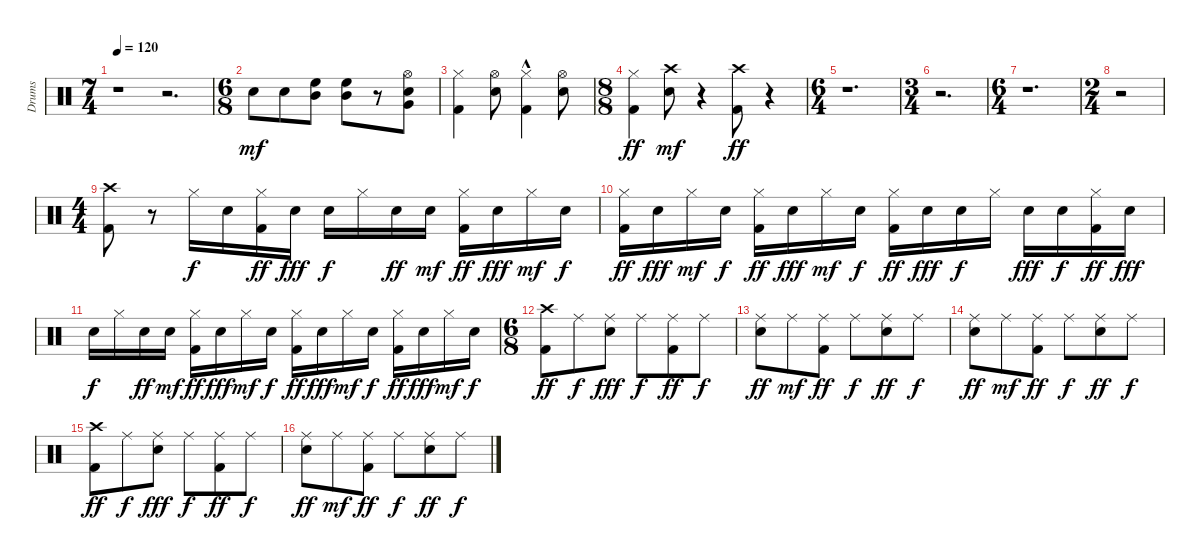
\track ("Drums" "Drums") {instrument percussion}
\staff {score}
\articulation defaults
\ts (7 4)
\tempo 120
\clef neutral
\ks c
r.1{dy mf} r.2{d} |
\ts (6 8)
"Snare (hit) 2".8 "Snare (hit) 2".8 ("Mid Tom (hit)" "High Floor Tom (hit)").8 ("Mid Tom (hit)" "High Floor Tom (hit)").8 r.8 ("Hi-Hat (open)" "Very Low Tom (hit)" "Snare (hit) 2").8 |
("Kick (hit) 2" "Hi-Hat (closed)").4 ("Snare (hit) 2" "Hi-Hat (open)").8 ("Kick (hit) 2"{hac} "Hi-Hat (closed)").4 ("Snare (hit) 2" "Hi-Hat (open)").8 |
\ts (8 8)
("Kick (hit) 2" "Hi-Hat (closed)").4{dy ff} ("Snare (hit) 2" "Crash high (hit)").8{dy mf} r.4 ("Kick (hit) 2" "Crash high (hit)").8{dy ff} r.4 |
\ts (6 4)
r.1{d} |
\ts (3 4)
r.2{d} |
\ts (6 4)
r.1{d} |
\ts (2 4)
r.2 |
\ts (4 4)
("Kick (hit) 2" "Crash high (hit)").8 r.8 "Hi-Hat (closed)".16{dy f} "Electric Snare (hit)".16 ("Kick (hit) 2" "Hi-Hat (closed)").16{dy ff} "Electric Snare (hit)".16{dy fff} "Electric Snare (hit)".16{dy f} "Hi-Hat (closed)".16 "Electric Snare (hit)".16{dy ff} "Electric Snare (hit)".16{dy mf} ("Kick (hit) 2" "Hi-Hat (closed)").16{dy ff} "Electric Snare (hit)".16{dy fff} "Hi-Hat (closed)".16{dy mf} "Electric Snare (hit)".16{dy f} |
("Kick (hit) 2" "Hi-Hat (closed)").16{dy ff} "Electric Snare (hit)".16{dy fff} "Hi-Hat (closed)".16{dy mf} "Electric Snare (hit)".16{dy f} ("Kick (hit) 2" "Hi-Hat (closed)").16{dy ff} "Electric Snare (hit)".16{dy fff} "Hi-Hat (closed)".16{dy mf} "Electric Snare (hit)".16{dy f} ("Kick (hit) 2" "Hi-Hat (closed)").16{dy ff} "Electric Snare (hit)".16{dy fff} "Electric Snare (hit)".16{dy f} "Hi-Hat (closed)".16 "Electric Snare (hit)".16{dy fff} "Electric Snare (hit)".16{dy f} ("Kick (hit) 2" "Hi-Hat (closed)").16{dy ff} "Electric Snare (hit)".16{dy fff} |
"Electric Snare (hit)".16{dy f} "Hi-Hat (closed)".16 "Electric Snare (hit)".16{dy ff} "Electric Snare (hit)".16{dy mf} ("Kick (hit) 2" "Hi-Hat (closed)").16{dy ff} "Electric Snare (hit)".16{dy fff} "Hi-Hat (closed)".16{dy mf} "Electric Snare (hit)".16{dy f} ("Kick (hit) 2" "Hi-Hat (closed)").16{dy ff} "Electric Snare (hit)".16{dy fff} "Hi-Hat (closed)".16{dy mf} "Electric Snare (hit)".16{dy f} ("Kick (hit) 2" "Hi-Hat (closed)").16{dy ff} "Electric Snare (hit)".16{dy fff} "Hi-Hat (closed)".16{dy mf} "Electric Snare (hit)".16{dy f} |
\ts (6 8)
("Kick (hit) 2" "Crash high (hit)").8{dy ff} "Ride (middle)".8{dy f} ("Snare (hit) 2" "Ride (middle)").8{dy fff} "Ride (middle)".8{dy f} ("Kick (hit) 2" "Ride (middle)").8{dy ff} "Ride (middle)".8{dy f} |
("Snare (hit) 2" "Ride (middle)").8{dy ff} "Ride (middle)".8{dy mf} ("Kick (hit) 2" "Ride (middle)").8{dy ff} "Ride (middle)".8{dy f} ("Snare (hit) 2" "Ride (middle)").8{dy ff} "Ride (middle)".8{dy f} |
("Snare (hit) 2" "Ride (middle)").8{dy ff} "Ride (middle)".8{dy mf} ("Kick (hit) 2" "Ride (middle)").8{dy ff} "Ride (middle)".8{dy f} ("Snare (hit) 2" "Ride (middle)").8{dy ff} "Ride (middle)".8{dy f} |
("Kick (hit) 2" "Crash high (hit)").8{dy ff} "Ride (middle)".8{dy f} ("Snare (hit) 2" "Ride (middle)").8{dy fff} "Ride (middle)".8{dy f} ("Kick (hit) 2" "Ride (middle)").8{dy ff} "Ride (middle)".8{dy f} |
("Snare (hit) 2" "Ride (middle)").8{dy ff} "Ride (middle)".8{dy mf} ("Kick (hit) 2" "Ride (middle)").8{dy ff} "Ride (middle)".8{dy f} ("Snare (hit) 2" "Ride (middle)").8{dy ff} "Ride (middle)".8{dy f}
